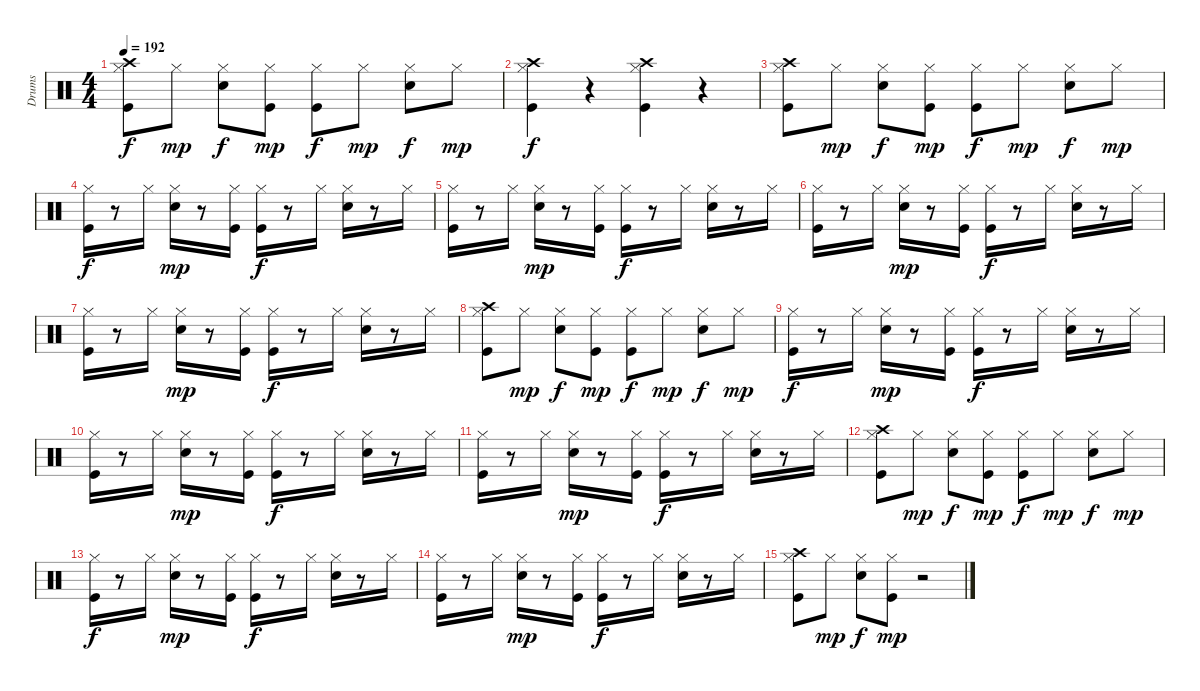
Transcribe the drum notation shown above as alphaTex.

\track ("Drums" "Drums") {instrument percussion}
\staff {score}
\articulation defaults
\ts (4 4)
\tempo 192
\clef neutral
\ks c
("Kick (hit)" "Hi-Hat (closed)" "Crash high (hit)").8{dy f} "Hi-Hat (closed)".8{dy mp} ("Snare (hit) 2" "Hi-Hat (closed)").8{dy f} ("Kick (hit)" "Hi-Hat (closed)").8{dy mp} ("Kick (hit)" "Hi-Hat (closed)").8{dy f} "Hi-Hat (closed)".8{dy mp} ("Snare (hit) 2" "Hi-Hat (closed)").8{dy f} "Hi-Hat (closed)".8{dy mp} |
("Kick (hit)" "Hi-Hat (closed)" "Crash high (hit)").4{dy f} r.4 ("Kick (hit)" "Hi-Hat (closed)" "Crash high (hit)").4 r.4 |
("Kick (hit)" "Hi-Hat (closed)" "Crash high (hit)").8 "Hi-Hat (closed)".8{dy mp} ("Snare (hit) 2" "Hi-Hat (closed)").8{dy f} ("Kick (hit)" "Hi-Hat (closed)").8{dy mp} ("Kick (hit)" "Hi-Hat (closed)").8{dy f} "Hi-Hat (closed)".8{dy mp} ("Snare (hit) 2" "Hi-Hat (closed)").8{dy f} "Hi-Hat (closed)".8{dy mp} |
("Kick (hit)" "Hi-Hat (closed)").16{dy f} r.8 "Hi-Hat (closed)".16 ("Snare (hit) 2" "Hi-Hat (closed)").16{dy mp} r.8 ("Kick (hit)" "Hi-Hat (closed)").16 ("Kick (hit)" "Hi-Hat (closed)").16{dy f} r.8 "Hi-Hat (closed)".16 ("Snare (hit) 2" "Hi-Hat (closed)").16 r.8 "Hi-Hat (closed)".16 |
("Kick (hit)" "Hi-Hat (closed)").16 r.8 "Hi-Hat (closed)".16 ("Snare (hit) 2" "Hi-Hat (closed)").16{dy mp} r.8 ("Kick (hit)" "Hi-Hat (closed)").16 ("Kick (hit)" "Hi-Hat (closed)").16{dy f} r.8 "Hi-Hat (closed)".16 ("Snare (hit) 2" "Hi-Hat (closed)").16 r.8 "Hi-Hat (closed)".16 |
("Kick (hit)" "Hi-Hat (closed)").16 r.8 "Hi-Hat (closed)".16 ("Snare (hit) 2" "Hi-Hat (closed)").16{dy mp} r.8 ("Kick (hit)" "Hi-Hat (closed)").16 ("Kick (hit)" "Hi-Hat (closed)").16{dy f} r.8 "Hi-Hat (closed)".16 ("Snare (hit) 2" "Hi-Hat (closed)").16 r.8 "Hi-Hat (closed)".16 |
("Kick (hit)" "Hi-Hat (closed)").16 r.8 "Hi-Hat (closed)".16 ("Snare (hit) 2" "Hi-Hat (closed)").16{dy mp} r.8 ("Kick (hit)" "Hi-Hat (closed)").16 ("Kick (hit)" "Hi-Hat (closed)").16{dy f} r.8 "Hi-Hat (closed)".16 ("Snare (hit) 2" "Hi-Hat (closed)").16 r.8 "Hi-Hat (closed)".16 |
("Kick (hit)" "Hi-Hat (closed)" "Crash high (hit)").8 "Hi-Hat (closed)".8{dy mp} ("Snare (hit) 2" "Hi-Hat (closed)").8{dy f} ("Kick (hit)" "Hi-Hat (closed)").8{dy mp} ("Kick (hit)" "Hi-Hat (closed)").8{dy f} "Hi-Hat (closed)".8{dy mp} ("Snare (hit) 2" "Hi-Hat (closed)").8{dy f} "Hi-Hat (closed)".8{dy mp} |
("Kick (hit)" "Hi-Hat (closed)").16{dy f} r.8 "Hi-Hat (closed)".16 ("Snare (hit) 2" "Hi-Hat (closed)").16{dy mp} r.8 ("Kick (hit)" "Hi-Hat (closed)").16 ("Kick (hit)" "Hi-Hat (closed)").16{dy f} r.8 "Hi-Hat (closed)".16 ("Snare (hit) 2" "Hi-Hat (closed)").16 r.8 "Hi-Hat (closed)".16 |
("Kick (hit)" "Hi-Hat (closed)").16 r.8 "Hi-Hat (closed)".16 ("Snare (hit) 2" "Hi-Hat (closed)").16{dy mp} r.8 ("Kick (hit)" "Hi-Hat (closed)").16 ("Kick (hit)" "Hi-Hat (closed)").16{dy f} r.8 "Hi-Hat (closed)".16 ("Snare (hit) 2" "Hi-Hat (closed)").16 r.8 "Hi-Hat (closed)".16 |
("Kick (hit)" "Hi-Hat (closed)").16 r.8 "Hi-Hat (closed)".16 ("Snare (hit) 2" "Hi-Hat (closed)").16{dy mp} r.8 ("Kick (hit)" "Hi-Hat (closed)").16 ("Kick (hit)" "Hi-Hat (closed)").16{dy f} r.8 "Hi-Hat (closed)".16 ("Snare (hit) 2" "Hi-Hat (closed)").16 r.8 "Hi-Hat (closed)".16 |
("Kick (hit)" "Hi-Hat (closed)" "Crash high (hit)").8 "Hi-Hat (closed)".8{dy mp} ("Snare (hit) 2" "Hi-Hat (closed)").8{dy f} ("Kick (hit)" "Hi-Hat (closed)").8{dy mp} ("Kick (hit)" "Hi-Hat (closed)").8{dy f} "Hi-Hat (closed)".8{dy mp} ("Snare (hit) 2" "Hi-Hat (closed)").8{dy f} "Hi-Hat (closed)".8{dy mp} |
("Kick (hit)" "Hi-Hat (closed)").16{dy f} r.8 "Hi-Hat (closed)".16 ("Snare (hit) 2" "Hi-Hat (closed)").16{dy mp} r.8 ("Kick (hit)" "Hi-Hat (closed)").16 ("Kick (hit)" "Hi-Hat (closed)").16{dy f} r.8 "Hi-Hat (closed)".16 ("Snare (hit) 2" "Hi-Hat (closed)").16 r.8 "Hi-Hat (closed)".16 |
("Kick (hit)" "Hi-Hat (closed)").16 r.8 "Hi-Hat (closed)".16 ("Snare (hit) 2" "Hi-Hat (closed)").16{dy mp} r.8 ("Kick (hit)" "Hi-Hat (closed)").16 ("Kick (hit)" "Hi-Hat (closed)").16{dy f} r.8 "Hi-Hat (closed)".16 ("Snare (hit) 2" "Hi-Hat (closed)").16 r.8 "Hi-Hat (closed)".16 |
("Kick (hit)" "Hi-Hat (closed)" "Crash high (hit)").8 "Hi-Hat (closed)".8{dy mp} ("Snare (hit) 2" "Hi-Hat (closed)").8{dy f} ("Kick (hit)" "Hi-Hat (closed)").8{dy mp} r.2
